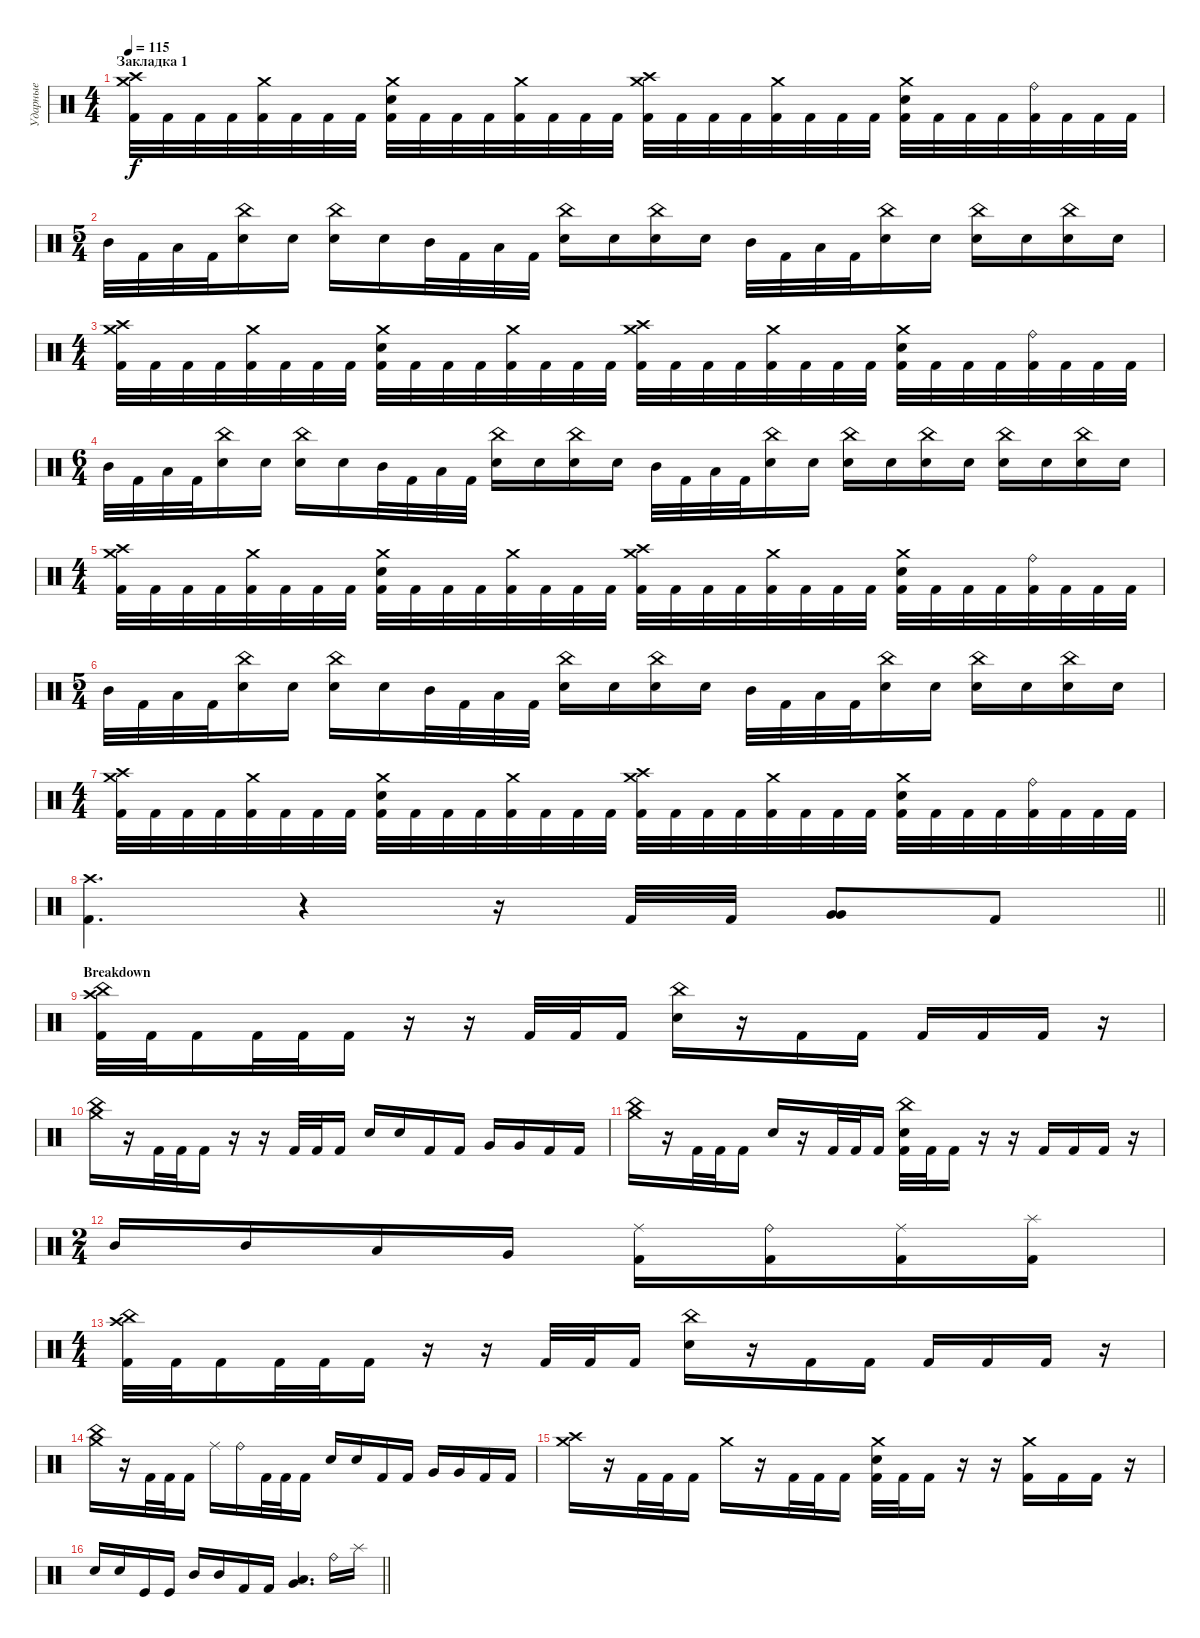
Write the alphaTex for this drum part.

\track ("Ударные" "Ударные") {instrument percussion}
\staff {score}
\articulation defaults
\ts (4 4)
\section ("" "Закладка 1")
\tempo 115
\clef neutral
\ks c
("Crash medium (hit)" "Crash high (hit)" "Kick (hit) 2").32{dy f} "Kick (hit) 2".32 "Kick (hit) 2".32 "Kick (hit) 2".32 ("Crash medium (hit)" "Kick (hit) 2").32 "Kick (hit) 2".32 "Kick (hit) 2".32 "Kick (hit) 2".32 ("Crash medium (hit)" "Electric Snare (hit)" "Kick (hit) 2").32 "Kick (hit) 2".32 "Kick (hit) 2".32 "Kick (hit) 2".32 ("Crash medium (hit)" "Kick (hit) 2").32 "Kick (hit) 2".32 "Kick (hit) 2".32 "Kick (hit) 2".32 ("Crash medium (hit)" "Crash high (hit)" "Kick (hit) 2").32 "Kick (hit) 2".32 "Kick (hit) 2".32 "Kick (hit) 2".32 ("Crash medium (hit)" "Kick (hit) 2").32 "Kick (hit) 2".32 "Kick (hit) 2".32 "Kick (hit) 2".32 ("Crash medium (hit)" "Electric Snare (hit)" "Kick (hit) 2").32 "Kick (hit) 2".32 "Kick (hit) 2".32 "Kick (hit) 2".32 ("Ride (bell)" "Kick (hit) 2").32 "Kick (hit) 2".32 "Kick (hit) 2".32 "Kick (hit) 2".32 |
\ts (5 4)
"Mid Tom (hit)".32 "Kick (hit) 2".32 "Low Tom (hit)".32 "Kick (hit) 2".32 ("China (hit)" "Electric Snare (hit)").16 "Electric Snare (hit)".16 ("China (hit)" "Electric Snare (hit)").16 "Electric Snare (hit)".16 "Mid Tom (hit)".32 "Kick (hit) 2".32 "Low Tom (hit)".32 "Kick (hit) 2".32 ("China (hit)" "Electric Snare (hit)").16 "Electric Snare (hit)".16 ("China (hit)" "Electric Snare (hit)").16 "Electric Snare (hit)".16 "Mid Tom (hit)".32 "Kick (hit) 2".32 "Low Tom (hit)".32 "Kick (hit) 2".32 ("China (hit)" "Electric Snare (hit)").16 "Electric Snare (hit)".16 ("China (hit)" "Electric Snare (hit)").16 "Electric Snare (hit)".16 ("China (hit)" "Electric Snare (hit)").16 "Electric Snare (hit)".16 |
\ts (4 4)
("Crash medium (hit)" "Crash high (hit)" "Kick (hit) 2").32 "Kick (hit) 2".32 "Kick (hit) 2".32 "Kick (hit) 2".32 ("Crash medium (hit)" "Kick (hit) 2").32 "Kick (hit) 2".32 "Kick (hit) 2".32 "Kick (hit) 2".32 ("Crash medium (hit)" "Electric Snare (hit)" "Kick (hit) 2").32 "Kick (hit) 2".32 "Kick (hit) 2".32 "Kick (hit) 2".32 ("Crash medium (hit)" "Kick (hit) 2").32 "Kick (hit) 2".32 "Kick (hit) 2".32 "Kick (hit) 2".32 ("Crash medium (hit)" "Crash high (hit)" "Kick (hit) 2").32 "Kick (hit) 2".32 "Kick (hit) 2".32 "Kick (hit) 2".32 ("Crash medium (hit)" "Kick (hit) 2").32 "Kick (hit) 2".32 "Kick (hit) 2".32 "Kick (hit) 2".32 ("Crash medium (hit)" "Electric Snare (hit)" "Kick (hit) 2").32 "Kick (hit) 2".32 "Kick (hit) 2".32 "Kick (hit) 2".32 ("Ride (bell)" "Kick (hit) 2").32 "Kick (hit) 2".32 "Kick (hit) 2".32 "Kick (hit) 2".32 |
\ts (6 4)
"Mid Tom (hit)".32 "Kick (hit) 2".32 "Low Tom (hit)".32 "Kick (hit) 2".32 ("China (hit)" "Electric Snare (hit)").16 "Electric Snare (hit)".16 ("China (hit)" "Electric Snare (hit)").16 "Electric Snare (hit)".16 "Mid Tom (hit)".32 "Kick (hit) 2".32 "Low Tom (hit)".32 "Kick (hit) 2".32 ("China (hit)" "Electric Snare (hit)").16 "Electric Snare (hit)".16 ("China (hit)" "Electric Snare (hit)").16 "Electric Snare (hit)".16 "Mid Tom (hit)".32 "Kick (hit) 2".32 "Low Tom (hit)".32 "Kick (hit) 2".32 ("China (hit)" "Electric Snare (hit)").16 "Electric Snare (hit)".16 ("China (hit)" "Electric Snare (hit)").16 "Electric Snare (hit)".16 ("China (hit)" "Electric Snare (hit)").16 "Electric Snare (hit)".16 ("China (hit)" "Electric Snare (hit)").16 "Electric Snare (hit)".16 ("China (hit)" "Electric Snare (hit)").16 "Electric Snare (hit)".16 |
\ts (4 4)
("Crash medium (hit)" "Crash high (hit)" "Kick (hit) 2").32 "Kick (hit) 2".32 "Kick (hit) 2".32 "Kick (hit) 2".32 ("Crash medium (hit)" "Kick (hit) 2").32 "Kick (hit) 2".32 "Kick (hit) 2".32 "Kick (hit) 2".32 ("Crash medium (hit)" "Electric Snare (hit)" "Kick (hit) 2").32 "Kick (hit) 2".32 "Kick (hit) 2".32 "Kick (hit) 2".32 ("Crash medium (hit)" "Kick (hit) 2").32 "Kick (hit) 2".32 "Kick (hit) 2".32 "Kick (hit) 2".32 ("Crash medium (hit)" "Crash high (hit)" "Kick (hit) 2").32 "Kick (hit) 2".32 "Kick (hit) 2".32 "Kick (hit) 2".32 ("Crash medium (hit)" "Kick (hit) 2").32 "Kick (hit) 2".32 "Kick (hit) 2".32 "Kick (hit) 2".32 ("Crash medium (hit)" "Electric Snare (hit)" "Kick (hit) 2").32 "Kick (hit) 2".32 "Kick (hit) 2".32 "Kick (hit) 2".32 ("Ride (bell)" "Kick (hit) 2").32 "Kick (hit) 2".32 "Kick (hit) 2".32 "Kick (hit) 2".32 |
\ts (5 4)
"Mid Tom (hit)".32 "Kick (hit) 2".32 "Low Tom (hit)".32 "Kick (hit) 2".32 ("China (hit)" "Electric Snare (hit)").16 "Electric Snare (hit)".16 ("China (hit)" "Electric Snare (hit)").16 "Electric Snare (hit)".16 "Mid Tom (hit)".32 "Kick (hit) 2".32 "Low Tom (hit)".32 "Kick (hit) 2".32 ("China (hit)" "Electric Snare (hit)").16 "Electric Snare (hit)".16 ("China (hit)" "Electric Snare (hit)").16 "Electric Snare (hit)".16 "Mid Tom (hit)".32 "Kick (hit) 2".32 "Low Tom (hit)".32 "Kick (hit) 2".32 ("China (hit)" "Electric Snare (hit)").16 "Electric Snare (hit)".16 ("China (hit)" "Electric Snare (hit)").16 "Electric Snare (hit)".16 ("China (hit)" "Electric Snare (hit)").16 "Electric Snare (hit)".16 |
\ts (4 4)
("Crash medium (hit)" "Crash high (hit)" "Kick (hit) 2").32 "Kick (hit) 2".32 "Kick (hit) 2".32 "Kick (hit) 2".32 ("Crash medium (hit)" "Kick (hit) 2").32 "Kick (hit) 2".32 "Kick (hit) 2".32 "Kick (hit) 2".32 ("Crash medium (hit)" "Electric Snare (hit)" "Kick (hit) 2").32 "Kick (hit) 2".32 "Kick (hit) 2".32 "Kick (hit) 2".32 ("Crash medium (hit)" "Kick (hit) 2").32 "Kick (hit) 2".32 "Kick (hit) 2".32 "Kick (hit) 2".32 ("Crash medium (hit)" "Crash high (hit)" "Kick (hit) 2").32 "Kick (hit) 2".32 "Kick (hit) 2".32 "Kick (hit) 2".32 ("Crash medium (hit)" "Kick (hit) 2").32 "Kick (hit) 2".32 "Kick (hit) 2".32 "Kick (hit) 2".32 ("Crash medium (hit)" "Electric Snare (hit)" "Kick (hit) 2").32 "Kick (hit) 2".32 "Kick (hit) 2".32 "Kick (hit) 2".32 ("Ride (bell)" "Kick (hit) 2").32 "Kick (hit) 2".32 "Kick (hit) 2".32 "Kick (hit) 2".32 |
\barLineRight lightlight
("Crash high (hit)" "Kick (hit) 2").4{d} r.4 r.16 "Kick (hit) 2".32 "Kick (hit) 2".32 ("Very Low Tom (hit)" "Very Low Tom (hit)").8 "Kick (hit) 2".8 |
\section ("" "Breakdown")
("China (hit)" "Crash high (hit)" "Kick (hit) 2").32 "Kick (hit) 2".32 "Kick (hit) 2".16 "Kick (hit) 2".32 "Kick (hit) 2".32 "Kick (hit) 2".16 r.16 r.16 "Kick (hit) 2".32 "Kick (hit) 2".32 "Kick (hit) 2".16 ("China (hit)" "Electric Snare (hit)").16 r.16 "Kick (hit) 2".16 "Kick (hit) 2".16 "Kick (hit) 2".16 "Kick (hit) 2".16 "Kick (hit) 2".16 r.16 |
("China (hit)" "Crash medium (hit)").16 r.16 "Kick (hit) 2".32 "Kick (hit) 2".32 "Kick (hit) 2".16 r.16 r.16 "Kick (hit) 2".32 "Kick (hit) 2".32 "Kick (hit) 2".16 "Electric Snare (hit)".16 "Electric Snare (hit)".16 "Kick (hit) 2".16 "Kick (hit) 2".16 "Very Low Tom (hit)".16 "Very Low Tom (hit)".16 "Kick (hit) 2".16 "Kick (hit) 2".16 |
("China (hit)" "Crash medium (hit)").16 r.16 "Kick (hit) 2".32 "Kick (hit) 2".32 "Kick (hit) 2".16 "Electric Snare (hit)".16 r.16 "Kick (hit) 2".32 "Kick (hit) 2".32 "Kick (hit) 2".16 ("China (hit)" "Electric Snare (hit)" "Kick (hit) 2").32 "Kick (hit) 2".32 "Kick (hit) 2".16 r.16 r.16 "Kick (hit) 2".16 "Kick (hit) 2".16 "Kick (hit) 2".16 r.16 |
\ts (2 4)
"Mid Tom (hit)".16 "Mid Tom (hit)".16 "Low Tom (hit)".16 "Very Low Tom (hit)".16 ("Ride (middle)" "Kick (hit) 2").16 ("Ride (bell)" "Kick (hit) 2").16 ("Ride (middle)" "Kick (hit) 2").16 ("Splash (hit)" "Kick (hit) 2").16 |
\ts (4 4)
("China (hit)" "Crash high (hit)" "Kick (hit) 2").32 "Kick (hit) 2".32 "Kick (hit) 2".16 "Kick (hit) 2".32 "Kick (hit) 2".32 "Kick (hit) 2".16 r.16 r.16 "Kick (hit) 2".32 "Kick (hit) 2".32 "Kick (hit) 2".16 ("China (hit)" "Electric Snare (hit)").16 r.16 "Kick (hit) 2".16 "Kick (hit) 2".16 "Kick (hit) 2".16 "Kick (hit) 2".16 "Kick (hit) 2".16 r.16 |
("China (hit)" "Crash medium (hit)").16 r.16 "Kick (hit) 2".32 "Kick (hit) 2".32 "Kick (hit) 2".16 "Ride (middle)".16 "Ride (bell)".16 "Kick (hit) 2".32 "Kick (hit) 2".32 "Kick (hit) 2".16 "Electric Snare (hit)".16 "Electric Snare (hit)".16 "Kick (hit) 2".16 "Kick (hit) 2".16 "Very Low Tom (hit)".16 "Very Low Tom (hit)".16 "Kick (hit) 2".16 "Kick (hit) 2".16 |
("Crash high (hit)" "Crash medium (hit)").16 r.16 "Kick (hit) 2".32 "Kick (hit) 2".32 "Kick (hit) 2".16 "Crash medium (hit)".16 r.16 "Kick (hit) 2".32 "Kick (hit) 2".32 "Kick (hit) 2".16 ("Crash medium (hit)" "Electric Snare (hit)" "Kick (hit) 2").32 "Kick (hit) 2".32 "Kick (hit) 2".16 r.16 r.16 ("Crash medium (hit)" "Kick (hit) 2").16 "Kick (hit) 2".16 "Kick (hit) 2".16 r.16 |
\barLineRight lightlight "Electric Snare (hit)".16 "Electric Snare (hit)".16 "Kick (hit)".16 "Kick (hit)".16 "Mid Tom (hit)".16 "Mid Tom (hit)".16 "Kick (hit) 2".16 "Kick (hit) 2".16
("Very Low Tom (hit)" "Low Tom (hit)").4{d} "Ride (bell)".16 "Splash (hit)".16
